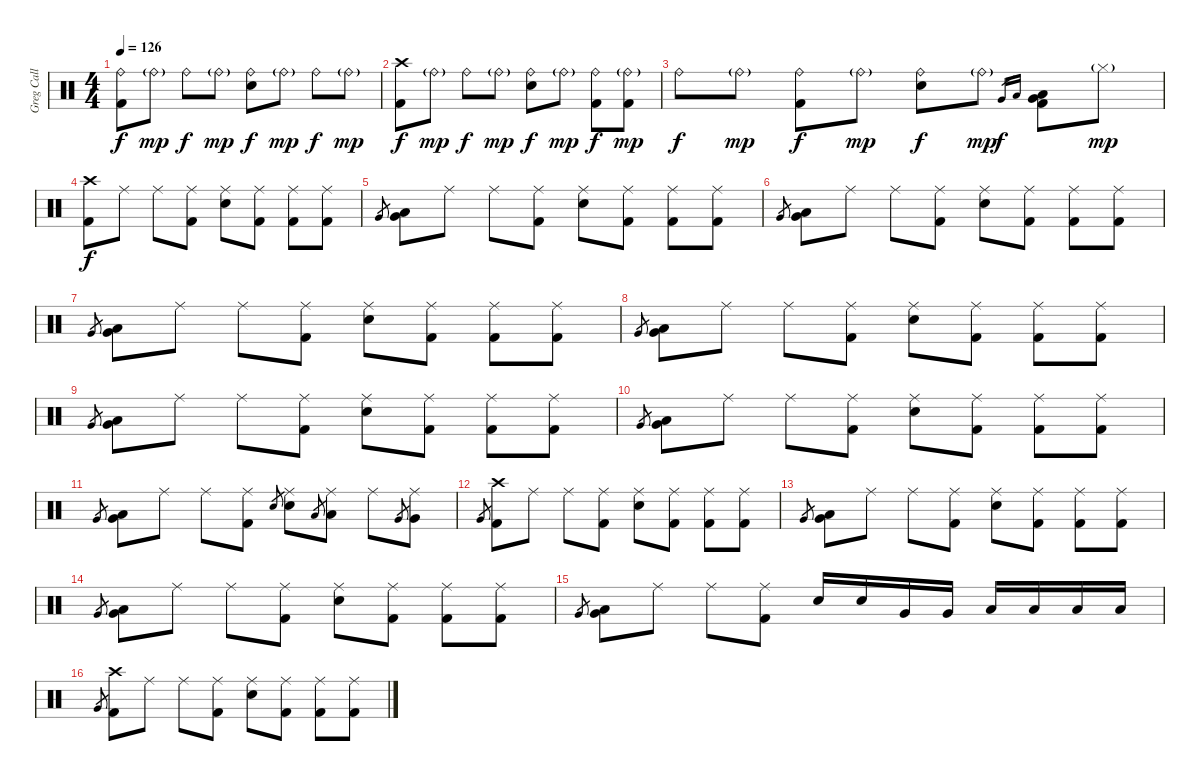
\track ("Greg Call (Drums)" "Greg Call ") {instrument percussion}
\staff {score}
\articulation defaults
\ts (4 4)
\tempo 126
\clef neutral
\ks c
("Ride (bell)" "Kick (hit) 2").8{dy f} "Ride (bell)"{g}.8{dy mp} "Ride (bell)".8{dy f} "Ride (bell)"{g}.8{dy mp} ("Ride (bell)" "Snare (hit) 2").8{dy f} "Ride (bell)"{g}.8{dy mp} "Ride (bell)".8{dy f} "Ride (bell)"{g}.8{dy mp} |
("Crash high (hit)" "Kick (hit) 2").8{dy f} "Ride (bell)"{g}.8{dy mp} "Ride (bell)".8{dy f} "Ride (bell)"{g}.8{dy mp} ("Ride (bell)" "Snare (hit) 2").8{dy f} "Ride (bell)"{g}.8{dy mp} ("Ride (bell)" "Kick (hit) 2").8{dy f} ("Ride (bell)"{g} "Kick (hit) 2").8{dy mp} |
"Ride (bell)".8{dy f} "Ride (bell)"{g}.8{dy mp} ("Ride (bell)" "Kick (hit) 2").8{dy f} "Ride (bell)"{g}.8{dy mp} ("Ride (bell)" "Snare (hit) 2").8{dy f} "Ride (bell)"{g}.8{dy mp} "Very Low Tom (hit)".16{gr dy f} "Low Floor Tom (hit)".16{gr} ("Very Low Tom (hit)" "Low Floor Tom (hit)" "Kick (hit) 2").8 "Hi-Hat (closed)"{g}.8{dy mp} |
("Crash high (hit)" "Kick (hit) 2").8{dy f} "Ride (middle)".8 "Ride (middle)".8 ("Ride (middle)" "Kick (hit) 2").8 ("Ride (middle)" "Snare (hit) 2").8 ("Ride (middle)" "Kick (hit) 2").8 ("Ride (middle)" "Kick (hit) 2").8 ("Ride (middle)" "Kick (hit) 2").8 |
"Very Low Tom (hit)".8{gr} ("Very Low Tom (hit)" "Low Floor Tom (hit)").8 "Ride (middle)".8 "Ride (middle)".8 ("Ride (middle)" "Kick (hit) 2").8 ("Ride (middle)" "Snare (hit) 2").8 ("Ride (middle)" "Kick (hit) 2").8 ("Ride (middle)" "Kick (hit) 2").8 ("Ride (middle)" "Kick (hit) 2").8 |
"Very Low Tom (hit)".8{gr} ("Very Low Tom (hit)" "Low Floor Tom (hit)").8 "Ride (middle)".8 "Ride (middle)".8 ("Ride (middle)" "Kick (hit) 2").8 ("Ride (middle)" "Snare (hit) 2").8 ("Ride (middle)" "Kick (hit) 2").8 ("Ride (middle)" "Kick (hit) 2").8 ("Ride (middle)" "Kick (hit) 2").8 |
"Very Low Tom (hit)".8{gr} ("Very Low Tom (hit)" "Low Floor Tom (hit)").8 "Ride (middle)".8 "Ride (middle)".8 ("Ride (middle)" "Kick (hit) 2").8 ("Ride (middle)" "Snare (hit) 2").8 ("Ride (middle)" "Kick (hit) 2").8 ("Ride (middle)" "Kick (hit) 2").8 ("Ride (middle)" "Kick (hit) 2").8 |
"Very Low Tom (hit)".8{gr} ("Very Low Tom (hit)" "Low Floor Tom (hit)").8 "Ride (middle)".8 "Ride (middle)".8 ("Ride (middle)" "Kick (hit) 2").8 ("Ride (middle)" "Snare (hit) 2").8 ("Ride (middle)" "Kick (hit) 2").8 ("Ride (middle)" "Kick (hit) 2").8 ("Ride (middle)" "Kick (hit) 2").8 |
"Very Low Tom (hit)".8{gr} ("Very Low Tom (hit)" "Low Floor Tom (hit)").8 "Ride (middle)".8 "Ride (middle)".8 ("Ride (middle)" "Kick (hit) 2").8 ("Ride (middle)" "Snare (hit) 2").8 ("Ride (middle)" "Kick (hit) 2").8 ("Ride (middle)" "Kick (hit) 2").8 ("Ride (middle)" "Kick (hit) 2").8 |
"Very Low Tom (hit)".8{gr} ("Very Low Tom (hit)" "Low Floor Tom (hit)").8 "Ride (middle)".8 "Ride (middle)".8 ("Ride (middle)" "Kick (hit) 2").8 ("Ride (middle)" "Snare (hit) 2").8 ("Ride (middle)" "Kick (hit) 2").8 ("Ride (middle)" "Kick (hit) 2").8 ("Ride (middle)" "Kick (hit) 2").8 |
"Very Low Tom (hit)".8{gr} ("Very Low Tom (hit)" "Low Floor Tom (hit)").8 "Ride (middle)".8 "Ride (middle)".8 ("Ride (middle)" "Kick (hit) 2").8 "Snare (hit) 2".8{gr} ("Ride (middle)" "Snare (hit) 2").8 "Low Tom (hit)".8{gr} ("Ride (middle)" "Low Tom (hit)").8 "Ride (middle)".8 "Very Low Tom (hit)".8{gr} ("Ride (middle)" "Very Low Tom (hit)").8 |
"Very Low Tom (hit)".8{gr} ("Crash high (hit)" "Kick (hit) 2").8 "Ride (middle)".8 "Ride (middle)".8 ("Ride (middle)" "Kick (hit) 2").8 ("Ride (middle)" "Snare (hit) 2").8 ("Ride (middle)" "Kick (hit) 2").8 ("Ride (middle)" "Kick (hit) 2").8 ("Ride (middle)" "Kick (hit) 2").8 |
"Very Low Tom (hit)".8{gr} ("Very Low Tom (hit)" "Low Floor Tom (hit)").8 "Ride (middle)".8 "Ride (middle)".8 ("Ride (middle)" "Kick (hit) 2").8 ("Ride (middle)" "Snare (hit) 2").8 ("Ride (middle)" "Kick (hit) 2").8 ("Ride (middle)" "Kick (hit) 2").8 ("Ride (middle)" "Kick (hit) 2").8 |
"Very Low Tom (hit)".8{gr} ("Very Low Tom (hit)" "Low Floor Tom (hit)").8 "Ride (middle)".8 "Ride (middle)".8 ("Ride (middle)" "Kick (hit) 2").8 ("Ride (middle)" "Snare (hit) 2").8 ("Ride (middle)" "Kick (hit) 2").8 ("Ride (middle)" "Kick (hit) 2").8 ("Ride (middle)" "Kick (hit) 2").8 |
"Very Low Tom (hit)".8{gr} ("Very Low Tom (hit)" "Low Floor Tom (hit)").8 "Ride (middle)".8 "Ride (middle)".8 ("Ride (middle)" "Kick (hit) 2").8 "Snare (hit) 2".16 "Snare (hit) 2".16 "Very Low Tom (hit)".16 "Very Low Tom (hit)".16 "Low Tom (hit)".16 "Low Tom (hit)".16 "Low Floor Tom (hit)".16 "Low Floor Tom (hit)".16 |
"Very Low Tom (hit)".8{gr} ("Crash high (hit)" "Kick (hit) 2").8 "Ride (middle)".8 "Ride (middle)".8 ("Ride (middle)" "Kick (hit) 2").8 ("Ride (middle)" "Snare (hit) 2").8 ("Ride (middle)" "Kick (hit) 2").8 ("Ride (middle)" "Kick (hit) 2").8 ("Ride (middle)" "Kick (hit) 2").8
